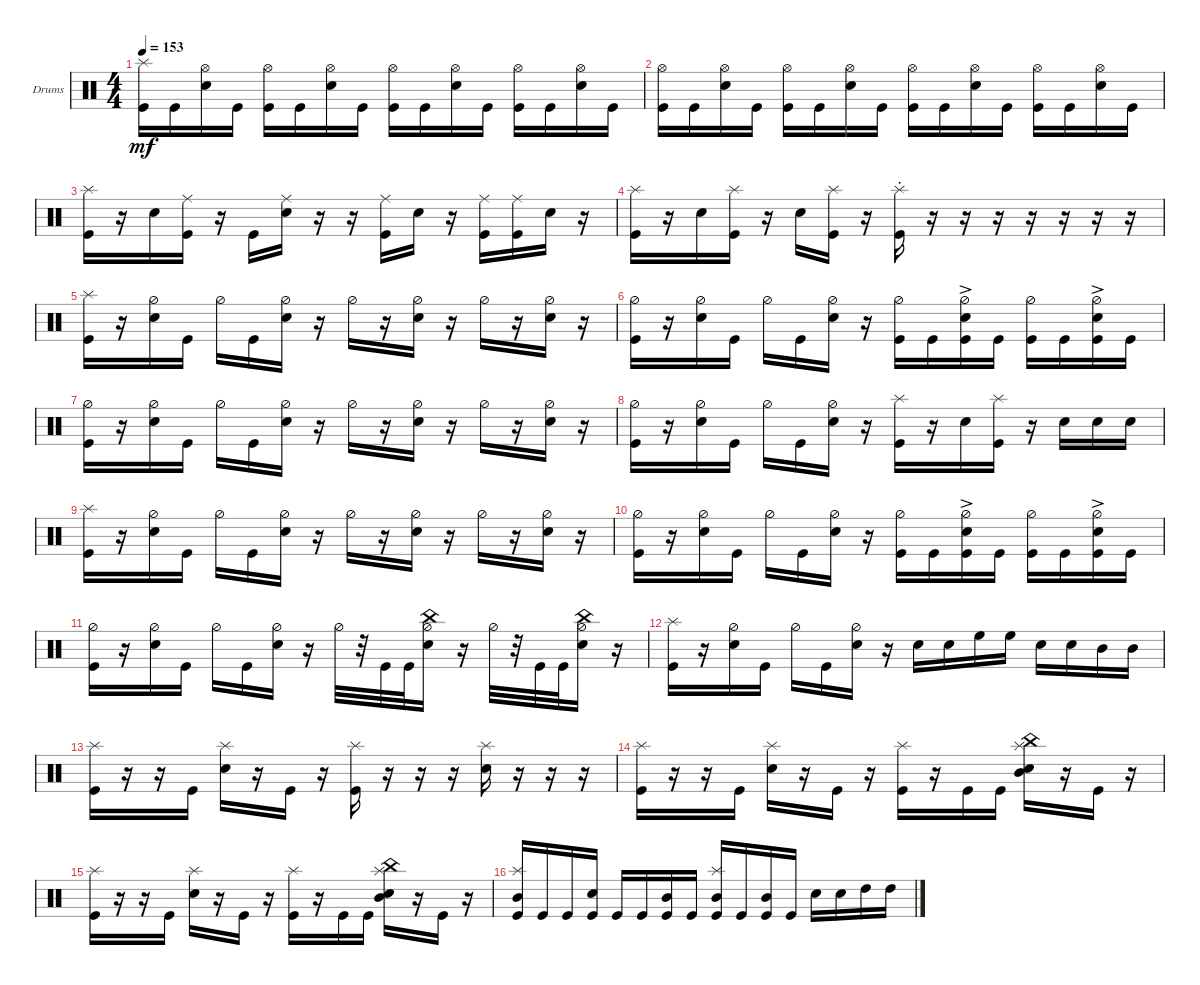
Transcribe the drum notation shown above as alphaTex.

\bracketExtendMode groupsimilarinstruments
\firstSystemTrackNameOrientation horizontal
\otherSystemsTrackNameOrientation horizontal
\track ("Drumkit" "Drums") {instrument percussion}
\staff {score}
\articulation defaults
\ts (4 4)
\tempo 153
\clef neutral
\ks c
("Kick (hit)" "Splash (hit)").16{dy mf} "Kick (hit)".16 ("Snare (hit) 2" "Hi-Hat (open)").16 "Kick (hit)".16 ("Kick (hit)" "Hi-Hat (open)").16 "Kick (hit)".16 ("Snare (hit) 2" "Hi-Hat (open)").16 "Kick (hit)".16 ("Kick (hit)" "Hi-Hat (open)").16 "Kick (hit)".16 ("Snare (hit) 2" "Hi-Hat (open)").16 "Kick (hit)".16 ("Kick (hit)" "Hi-Hat (open)").16 "Kick (hit)".16 ("Snare (hit) 2" "Hi-Hat (open)").16 "Kick (hit)".16 |
("Kick (hit)" "Hi-Hat (open)").16 "Kick (hit)".16 ("Snare (hit) 2" "Hi-Hat (open)").16 "Kick (hit)".16 ("Kick (hit)" "Hi-Hat (open)").16 "Kick (hit)".16 ("Snare (hit) 2" "Hi-Hat (open)").16 "Kick (hit)".16 ("Kick (hit)" "Hi-Hat (open)").16 "Kick (hit)".16 ("Snare (hit) 2" "Hi-Hat (open)").16 "Kick (hit)".16 ("Kick (hit)" "Hi-Hat (open)").16 "Kick (hit)".16 ("Snare (hit) 2" "Hi-Hat (open)").16 "Kick (hit)".16 |
("Kick (hit)" "Splash (hit)").16 r.16 "Snare (hit) 2".16 ("Kick (hit)" "Ride (middle)").16 r.16 "Kick (hit)".16 ("Snare (hit) 2" "Ride (middle)").16 r.16 r.16 ("Kick (hit)" "Ride (middle)").16 "Snare (hit) 2".16 r.16 ("Kick (hit)" "Ride (middle)").16 ("Kick (hit)" "Ride (middle)").16 "Snare (hit) 2".16 r.16 |
("Kick (hit)" "Splash (hit)").16 r.16 "Snare (hit) 2".16 ("Kick (hit)" "Splash (hit)").16 r.16 "Snare (hit) 2".16 ("Kick (hit)" "Splash (hit)").16 r.16 ("Kick (hit)" "Splash (hit)"{st}).16 r.16 r.16 r.16 r.16 r.16 r.16 r.16 |
("Kick (hit)" "Splash (hit)").16 r.16 ("Snare (hit) 2" "Hi-Hat (half)").16 "Kick (hit)".16 "Hi-Hat (half)".16 "Kick (hit)".16 ("Snare (hit) 2" "Hi-Hat (half)").16 r.16 "Hi-Hat (half)".16 r.16 ("Snare (hit) 2" "Hi-Hat (half)").16 r.16 "Hi-Hat (half)".16 r.16 ("Snare (hit) 2" "Hi-Hat (half)").16 r.16 |
("Kick (hit)" "Hi-Hat (half)").16 r.16 ("Snare (hit) 2" "Hi-Hat (half)").16 "Kick (hit)".16 "Hi-Hat (half)".16 "Kick (hit)".16 ("Snare (hit) 2" "Hi-Hat (half)").16 r.16 ("Kick (hit)" "Hi-Hat (half)").16 "Kick (hit)".16 ("Snare (hit) 2"{ac} "Kick (hit)" "Hi-Hat (half)").16 "Kick (hit)".16 ("Kick (hit)" "Hi-Hat (half)").16 "Kick (hit)".16 ("Snare (hit) 2"{ac} "Kick (hit)" "Hi-Hat (half)").16 "Kick (hit)".16 |
("Kick (hit)" "Hi-Hat (half)").16 r.16 ("Snare (hit) 2" "Hi-Hat (half)").16 "Kick (hit)".16 "Hi-Hat (half)".16 "Kick (hit)".16 ("Snare (hit) 2" "Hi-Hat (half)").16 r.16 "Hi-Hat (half)".16 r.16 ("Snare (hit) 2" "Hi-Hat (half)").16 r.16 "Hi-Hat (half)".16 r.16 ("Snare (hit) 2" "Hi-Hat (half)").16 r.16 |
("Kick (hit)" "Hi-Hat (half)").16 r.16 ("Snare (hit) 2" "Hi-Hat (half)").16 "Kick (hit)".16 "Hi-Hat (half)".16 "Kick (hit)".16 ("Snare (hit) 2" "Hi-Hat (half)").16 r.16 ("Kick (hit)" "Splash (hit)").16 r.16 "Snare (hit) 2".16 ("Kick (hit)" "Splash (hit)").16 r.16 "Snare (hit) 2".16 "Snare (hit) 2".16 "Snare (hit) 2".16 |
("Kick (hit)" "Splash (hit)").16 r.16 ("Snare (hit) 2" "Hi-Hat (half)").16 "Kick (hit)".16 "Hi-Hat (half)".16 "Kick (hit)".16 ("Snare (hit) 2" "Hi-Hat (half)").16 r.16 "Hi-Hat (half)".16 r.16 ("Snare (hit) 2" "Hi-Hat (half)").16 r.16 "Hi-Hat (half)".16 r.16 ("Snare (hit) 2" "Hi-Hat (half)").16 r.16 |
("Kick (hit)" "Hi-Hat (half)").16 r.16 ("Snare (hit) 2" "Hi-Hat (half)").16 "Kick (hit)".16 "Hi-Hat (half)".16 "Kick (hit)".16 ("Snare (hit) 2" "Hi-Hat (half)").16 r.16 ("Kick (hit)" "Hi-Hat (half)").16 "Kick (hit)".16 ("Snare (hit) 2"{ac} "Kick (hit)" "Hi-Hat (half)").16 "Kick (hit)".16 ("Kick (hit)" "Hi-Hat (half)").16 "Kick (hit)".16 ("Snare (hit) 2"{ac} "Kick (hit)" "Hi-Hat (half)").16 "Kick (hit)".16 |
("Kick (hit)" "Hi-Hat (half)").16 r.16 ("Snare (hit) 2" "Hi-Hat (half)").16 "Kick (hit)".16 "Hi-Hat (half)".16 "Kick (hit)".16 ("Snare (hit) 2" "Hi-Hat (half)").16 r.16 "Hi-Hat (half)".32 r.32 "Kick (hit)".32 "Kick (hit)".32 ("Snare (hit) 2" "Hi-Hat (half)" "China (hit)").16 r.16 "Hi-Hat (half)".32 r.32 "Kick (hit)".32 "Kick (hit)".32 ("Snare (hit) 2" "Hi-Hat (half)" "China (hit)").16 r.16 |
("Kick (hit)" "Splash (hit)").16 r.16 ("Snare (hit) 2" "Hi-Hat (half)").16 "Kick (hit)".16 "Hi-Hat (half)".16 "Kick (hit)".16 ("Snare (hit) 2" "Hi-Hat (half)").16 r.16 "Snare (hit) 2".16 "Snare (hit) 2".16 "High Floor Tom (hit)".16 "High Floor Tom (hit)".16 "Snare (hit) 2".16 "Snare (hit) 2".16 "Mid Tom (hit)".16 "Mid Tom (hit)".16 |
("Kick (hit)" "Splash (hit)").16 r.16 r.16 "Kick (hit)".16 ("Snare (hit) 2" "Splash (hit)").16 r.16 "Kick (hit)".16 r.16 ("Kick (hit)" "Splash (hit)").16 r.16 r.16 r.16 ("Snare (hit) 2" "Splash (hit)").16 r.16 r.16 r.16 |
("Kick (hit)" "Splash (hit)").16 r.16 r.16 "Kick (hit)".16 ("Snare (hit) 2" "Splash (hit)").16 r.16 "Kick (hit)".16 r.16 ("Kick (hit)" "Splash (hit)").16 r.16 "Kick (hit)".16 "Kick (hit)".16 ("Snare (hit) 2" "Mid Tom (hit)" "Splash (hit)" "China (hit)").16 r.16 "Kick (hit)".16 r.16 |
("Kick (hit)" "Splash (hit)").16 r.16 r.16 "Kick (hit)".16 ("Snare (hit) 2" "Splash (hit)").16 r.16 "Kick (hit)".16 r.16 ("Kick (hit)" "Splash (hit)").16 r.16 "Kick (hit)".16 "Kick (hit)".16 ("Snare (hit) 2" "Mid Tom (hit)" "Splash (hit)" "China (hit)").16 r.16 "Kick (hit)".16 r.16 |
("Kick (hit)" "Mid Tom (hit)" "Splash (hit)").16 "Kick (hit)".16 "Kick (hit)".16 ("Snare (hit) 2" "Kick (hit)").16 "Kick (hit)".16 "Kick (hit)".16 ("Kick (hit)" "Mid Tom (hit)").16 "Kick (hit)".16 ("Kick (hit)" "Mid Tom (hit)" "Splash (hit)").16 "Kick (hit)".16 ("Kick (hit)" "Mid Tom (hit)").16 "Kick (hit)".16 "Snare (hit) 2".16 "Snare (hit) 2".16 "High Tom (hit)".16 "High Tom (hit)".16
